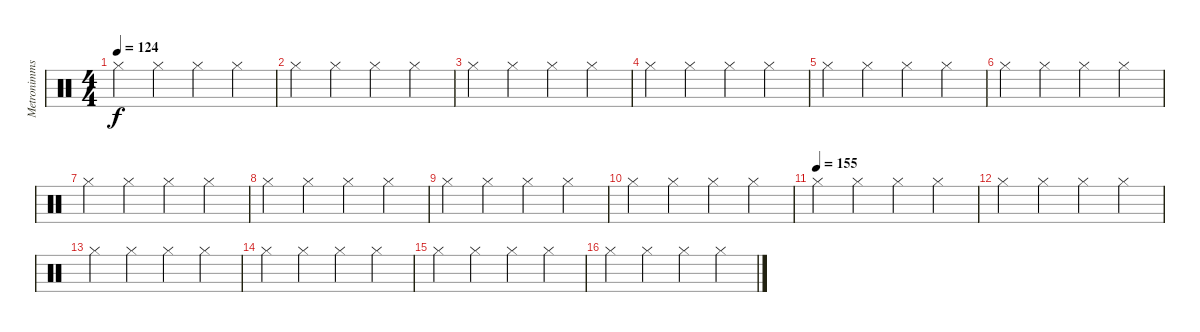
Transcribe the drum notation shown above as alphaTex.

\track ("Metronimms" "Metronimms") {instrument percussion}
\staff {score}
\articulation defaults
\ts (4 4)
\tempo 124
\clef neutral
\ks c "Hi-Hat (closed)".4{dy f} "Hi-Hat (closed)".4 "Hi-Hat (closed)".4 "Hi-Hat (closed)".4
|
"Hi-Hat (closed)".4 "Hi-Hat (closed)".4 "Hi-Hat (closed)".4 "Hi-Hat (closed)".4 |
"Hi-Hat (closed)".4 "Hi-Hat (closed)".4 "Hi-Hat (closed)".4 "Hi-Hat (closed)".4 |
"Hi-Hat (closed)".4 "Hi-Hat (closed)".4 "Hi-Hat (closed)".4 "Hi-Hat (closed)".4 |
"Hi-Hat (closed)".4 "Hi-Hat (closed)".4 "Hi-Hat (closed)".4 "Hi-Hat (closed)".4 |
"Hi-Hat (closed)".4 "Hi-Hat (closed)".4 "Hi-Hat (closed)".4 "Hi-Hat (closed)".4 |
"Hi-Hat (closed)".4 "Hi-Hat (closed)".4 "Hi-Hat (closed)".4 "Hi-Hat (closed)".4 |
"Hi-Hat (closed)".4 "Hi-Hat (closed)".4 "Hi-Hat (closed)".4 "Hi-Hat (closed)".4 |
"Hi-Hat (closed)".4 "Hi-Hat (closed)".4 "Hi-Hat (closed)".4 "Hi-Hat (closed)".4 |
"Hi-Hat (closed)".4 "Hi-Hat (closed)".4 "Hi-Hat (closed)".4 "Hi-Hat (closed)".4 |
\tempo (155)
"Hi-Hat (closed)".4 "Hi-Hat (closed)".4 "Hi-Hat (closed)".4 "Hi-Hat (closed)".4 |
"Hi-Hat (closed)".4 "Hi-Hat (closed)".4 "Hi-Hat (closed)".4 "Hi-Hat (closed)".4 |
"Hi-Hat (closed)".4 "Hi-Hat (closed)".4 "Hi-Hat (closed)".4 "Hi-Hat (closed)".4 |
"Hi-Hat (closed)".4 "Hi-Hat (closed)".4 "Hi-Hat (closed)".4 "Hi-Hat (closed)".4 |
"Hi-Hat (closed)".4 "Hi-Hat (closed)".4 "Hi-Hat (closed)".4 "Hi-Hat (closed)".4 |
"Hi-Hat (closed)".4 "Hi-Hat (closed)".4 "Hi-Hat (closed)".4 "Hi-Hat (closed)".4
